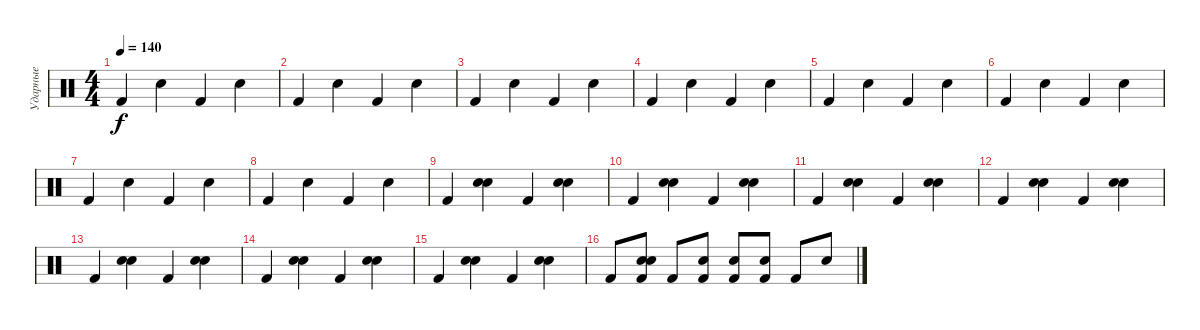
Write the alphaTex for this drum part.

\track ("Ударные" "Ударные") {instrument percussion}
\staff {score}
\articulation defaults
\ts (4 4)
\tempo 140
\clef neutral
\ks c "Kick (hit) 2".4{dy f} "Electric Snare (hit)".4 "Kick (hit) 2".4 "Electric Snare (hit)".4
|
"Kick (hit) 2".4 "Electric Snare (hit)".4 "Kick (hit) 2".4 "Electric Snare (hit)".4 |
"Kick (hit) 2".4 "Electric Snare (hit)".4 "Kick (hit) 2".4 "Electric Snare (hit)".4 |
"Kick (hit) 2".4 "Electric Snare (hit)".4 "Kick (hit) 2".4 "Electric Snare (hit)".4 |
"Kick (hit) 2".4 "Electric Snare (hit)".4 "Kick (hit) 2".4 "Electric Snare (hit)".4 |
"Kick (hit) 2".4 "Electric Snare (hit)".4 "Kick (hit) 2".4 "Electric Snare (hit)".4 |
"Kick (hit) 2".4 "Electric Snare (hit)".4 "Kick (hit) 2".4 "Electric Snare (hit)".4 |
"Kick (hit) 2".4 "Electric Snare (hit)".4 "Kick (hit) 2".4 "Electric Snare (hit)".4 |
"Kick (hit) 2".4 ("Hand Clap (hit)" "Electric Snare (hit)").4 "Kick (hit) 2".4 ("Hand Clap (hit)" "Electric Snare (hit)").4 |
"Kick (hit) 2".4 ("Hand Clap (hit)" "Electric Snare (hit)").4 "Kick (hit) 2".4 ("Hand Clap (hit)" "Electric Snare (hit)").4 |
"Kick (hit) 2".4 ("Hand Clap (hit)" "Electric Snare (hit)").4 "Kick (hit) 2".4 ("Hand Clap (hit)" "Electric Snare (hit)").4 |
"Kick (hit) 2".4 ("Hand Clap (hit)" "Electric Snare (hit)").4 "Kick (hit) 2".4 ("Hand Clap (hit)" "Electric Snare (hit)").4 |
"Kick (hit) 2".4 ("Hand Clap (hit)" "Electric Snare (hit)").4 "Kick (hit) 2".4 ("Hand Clap (hit)" "Electric Snare (hit)").4 |
"Kick (hit) 2".4 ("Hand Clap (hit)" "Electric Snare (hit)").4 "Kick (hit) 2".4 ("Hand Clap (hit)" "Electric Snare (hit)").4 |
"Kick (hit) 2".4 ("Hand Clap (hit)" "Electric Snare (hit)").4 "Kick (hit) 2".4 ("Hand Clap (hit)" "Electric Snare (hit)").4 |
"Kick (hit) 2".8 ("Hand Clap (hit)" "Electric Snare (hit)" "Kick (hit) 2").8 "Kick (hit) 2".8 ("Electric Snare (hit)" "Kick (hit) 2").8 ("Electric Snare (hit)" "Kick (hit) 2").8 ("Electric Snare (hit)" "Kick (hit) 2").8 "Kick (hit) 2".8 "Electric Snare (hit)".8
